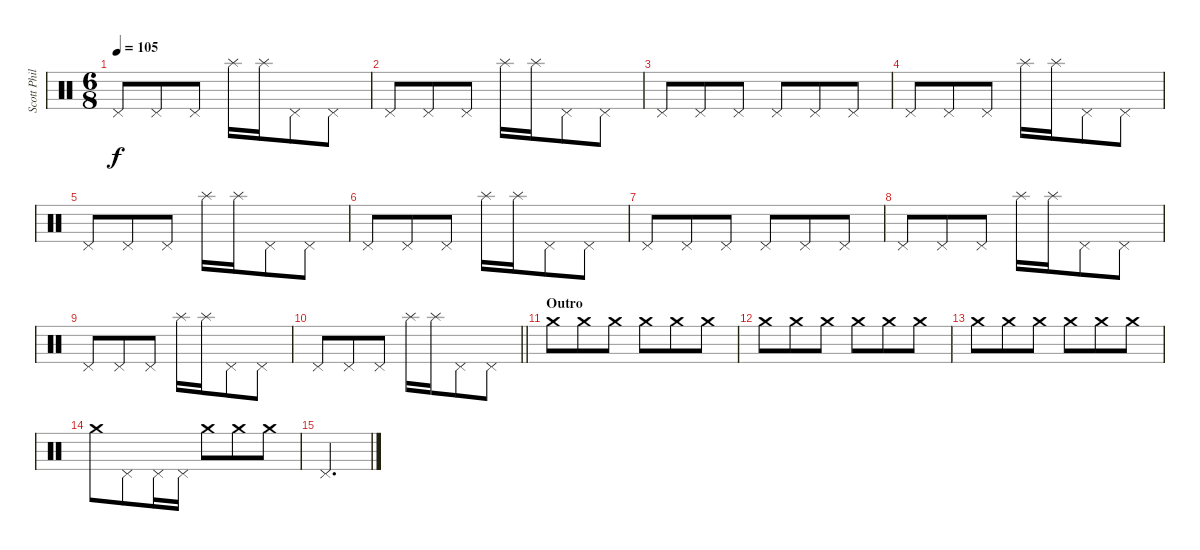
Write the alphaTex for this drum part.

\track ("Scott Phillips (Drums)" "Scott Phil") {instrument percussion}
\staff {score}
\articulation defaults
\ts (6 8)
\tempo 105
\clef neutral
\ks c "Pedal Hi-Hat (hit)".8{dy f} "Pedal Hi-Hat (hit)".8 "Pedal Hi-Hat (hit)".8 "Splash (hit)".16 "Splash (hit)".16 "Pedal Hi-Hat (hit)".8 "Pedal Hi-Hat (hit)".8
|
"Pedal Hi-Hat (hit)".8 "Pedal Hi-Hat (hit)".8 "Pedal Hi-Hat (hit)".8 "Splash (hit)".16 "Splash (hit)".16 "Pedal Hi-Hat (hit)".8 "Pedal Hi-Hat (hit)".8 |
"Pedal Hi-Hat (hit)".8 "Pedal Hi-Hat (hit)".8 "Pedal Hi-Hat (hit)".8 "Pedal Hi-Hat (hit)".8 "Pedal Hi-Hat (hit)".8 "Pedal Hi-Hat (hit)".8 |
"Pedal Hi-Hat (hit)".8 "Pedal Hi-Hat (hit)".8 "Pedal Hi-Hat (hit)".8 "Splash (hit)".16 "Splash (hit)".16 "Pedal Hi-Hat (hit)".8 "Pedal Hi-Hat (hit)".8 |
"Pedal Hi-Hat (hit)".8 "Pedal Hi-Hat (hit)".8 "Pedal Hi-Hat (hit)".8 "Splash (hit)".16 "Splash (hit)".16 "Pedal Hi-Hat (hit)".8 "Pedal Hi-Hat (hit)".8 |
"Pedal Hi-Hat (hit)".8 "Pedal Hi-Hat (hit)".8 "Pedal Hi-Hat (hit)".8 "Splash (hit)".16 "Splash (hit)".16 "Pedal Hi-Hat (hit)".8 "Pedal Hi-Hat (hit)".8 |
"Pedal Hi-Hat (hit)".8 "Pedal Hi-Hat (hit)".8 "Pedal Hi-Hat (hit)".8 "Pedal Hi-Hat (hit)".8 "Pedal Hi-Hat (hit)".8 "Pedal Hi-Hat (hit)".8 |
"Pedal Hi-Hat (hit)".8 "Pedal Hi-Hat (hit)".8 "Pedal Hi-Hat (hit)".8 "Splash (hit)".16 "Splash (hit)".16 "Pedal Hi-Hat (hit)".8 "Pedal Hi-Hat (hit)".8 |
"Pedal Hi-Hat (hit)".8 "Pedal Hi-Hat (hit)".8 "Pedal Hi-Hat (hit)".8 "Splash (hit)".16 "Splash (hit)".16 "Pedal Hi-Hat (hit)".8 "Pedal Hi-Hat (hit)".8 |
\barLineRight lightlight "Pedal Hi-Hat (hit)".8 "Pedal Hi-Hat (hit)".8 "Pedal Hi-Hat (hit)".8 "Splash (hit)".16 "Splash (hit)".16 "Pedal Hi-Hat (hit)".8 "Pedal Hi-Hat (hit)".8
|
\section ("" "Outro")
"Crash medium (hit)".8 "Crash medium (hit)".8 "Crash medium (hit)".8 "Crash medium (hit)".8 "Crash medium (hit)".8 "Crash medium (hit)".8 |
"Crash medium (hit)".8 "Crash medium (hit)".8 "Crash medium (hit)".8 "Crash medium (hit)".8 "Crash medium (hit)".8 "Crash medium (hit)".8 |
"Crash medium (hit)".8 "Crash medium (hit)".8 "Crash medium (hit)".8 "Crash medium (hit)".8 "Crash medium (hit)".8 "Crash medium (hit)".8 |
"Crash medium (hit)".8 "Pedal Hi-Hat (hit)".8 "Pedal Hi-Hat (hit)".16 "Pedal Hi-Hat (hit)".16 "Crash medium (hit)".8 "Crash medium (hit)".8 "Crash medium (hit)".8 |
"Pedal Hi-Hat (hit)".2{d}
